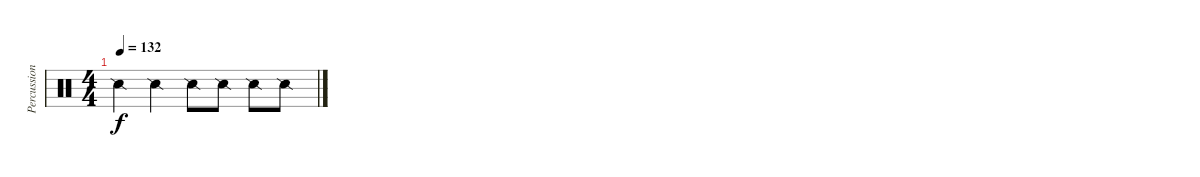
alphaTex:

\track ("Percussion" "Percussion") {instrument percussion}
\staff {score}
\articulation defaults
\ts (4 4)
\tempo 132
\clef neutral
\ks c "Snare (side stick) 2".4{dy f} "Snare (side stick) 2".4 "Snare (side stick) 2".8 "Snare (side stick) 2".8 "Snare (side stick) 2".8 "Snare (side stick) 2".8
